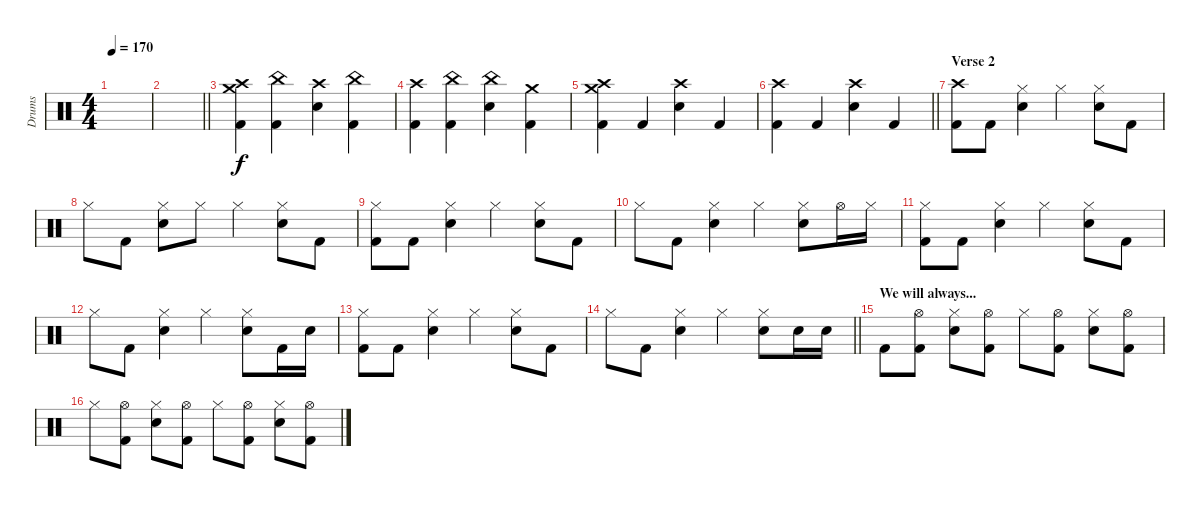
\track ("Drums" "Drums") {instrument percussion}
\staff {score}
\articulation defaults
\ts (4 4)
\tempo 170
\clef neutral
\ks c
|
\barLineRight lightlight
|
\section ("" "")
("Crash high (hit)" "Crash medium (hit)" "Kick (hit) 2").4 ("China (hit)" "Kick (hit) 2").4 ("Crash high (hit)" "Electric Snare (hit)").4 ("China (hit)" "Kick (hit) 2").4 |
("Crash high (hit)" "Kick (hit) 2").4 ("China (hit)" "Kick (hit) 2").4 ("China (hit)" "Electric Snare (hit)").4 ("Crash medium (hit)" "Kick (hit) 2").4 |
("Crash high (hit)" "Crash medium (hit)" "Kick (hit) 2").4 "Kick (hit) 2".4 ("Crash high (hit)" "Electric Snare (hit)").4 "Kick (hit) 2".4 |
\barLineRight lightlight
("Crash high (hit)" "Kick (hit) 2").4 "Kick (hit) 2".4 ("Crash high (hit)" "Electric Snare (hit)").4 "Kick (hit) 2".4 |
\section ("" "Verse 2")
("Crash high (hit)" "Kick (hit) 2").8 "Kick (hit) 2".8 ("Hi-Hat (closed)" "Electric Snare (hit)").4 "Hi-Hat (closed)".4 ("Hi-Hat (closed)" "Electric Snare (hit)").8 "Kick (hit) 2".8 |
"Hi-Hat (closed)".8 "Kick (hit) 2".8 ("Hi-Hat (closed)" "Electric Snare (hit)").8 "Hi-Hat (closed)".8 "Hi-Hat (closed)".4 ("Hi-Hat (closed)" "Electric Snare (hit)").8 "Kick (hit) 2".8 |
("Hi-Hat (closed)" "Kick (hit) 2").8 "Kick (hit) 2".8 ("Hi-Hat (closed)" "Electric Snare (hit)").4 "Hi-Hat (closed)".4 ("Hi-Hat (closed)" "Electric Snare (hit)").8 "Kick (hit) 2".8 |
"Hi-Hat (closed)".8 "Kick (hit) 2".8 ("Hi-Hat (closed)" "Electric Snare (hit)").4 "Hi-Hat (closed)".4 ("Hi-Hat (closed)" "Electric Snare (hit)").8 "Hi-Hat (open)".16 "Hi-Hat (closed)".16 |
("Hi-Hat (closed)" "Kick (hit) 2").8 "Kick (hit) 2".8 ("Hi-Hat (closed)" "Electric Snare (hit)").4 "Hi-Hat (closed)".4 ("Hi-Hat (closed)" "Electric Snare (hit)").8 "Kick (hit) 2".8 |
"Hi-Hat (closed)".8 "Kick (hit) 2".8 ("Hi-Hat (closed)" "Electric Snare (hit)").4 "Hi-Hat (closed)".4 ("Hi-Hat (closed)" "Electric Snare (hit)").8 "Kick (hit) 2".16 "Electric Snare (hit)".16 |
("Hi-Hat (closed)" "Kick (hit) 2").8 "Kick (hit) 2".8 ("Hi-Hat (closed)" "Electric Snare (hit)").4 "Hi-Hat (closed)".4 ("Hi-Hat (closed)" "Electric Snare (hit)").8 "Kick (hit) 2".8 |
\barLineRight lightlight "Hi-Hat (closed)".8 "Kick (hit) 2".8
("Hi-Hat (closed)" "Electric Snare (hit)").4 "Hi-Hat (closed)".4 ("Hi-Hat (closed)" "Electric Snare (hit)").8 "Electric Snare (hit)".16 "Electric Snare (hit)".16 |
\section ("" "We will always...")
"Kick (hit) 2".8 ("Hi-Hat (open)" "Kick (hit) 2").8 ("Hi-Hat (closed)" "Electric Snare (hit)").8 ("Hi-Hat (open)" "Kick (hit) 2").8 "Hi-Hat (closed)".8 ("Hi-Hat (open)" "Kick (hit) 2").8 ("Hi-Hat (closed)" "Electric Snare (hit)").8 ("Hi-Hat (open)" "Kick (hit) 2").8 |
"Hi-Hat (closed)".8 ("Hi-Hat (open)" "Kick (hit) 2").8 ("Hi-Hat (closed)" "Electric Snare (hit)").8 ("Hi-Hat (open)" "Kick (hit) 2").8 "Hi-Hat (closed)".8 ("Hi-Hat (open)" "Kick (hit) 2").8 ("Hi-Hat (closed)" "Electric Snare (hit)").8 ("Hi-Hat (open)" "Kick (hit) 2").8
